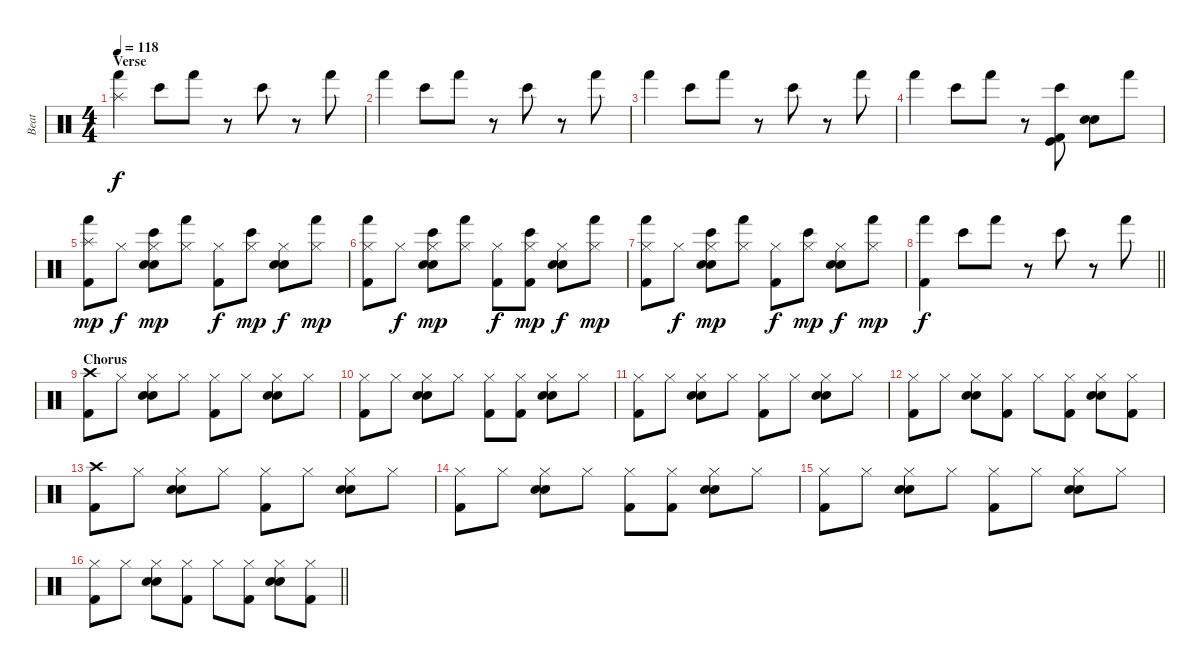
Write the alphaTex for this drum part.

\track ("Beat" "Beat") {instrument percussion}
\staff {score}
\articulation defaults
\ts (4 4)
\section ("" "Verse")
\tempo 118
\clef neutral
\ks c
("Splash (hit)" "Hand (hit)").4{dy f} "Bongo High (hit)".8 "Hand (hit)".8 r.8 "Bongo High (hit)".8 r.8 "Hand (hit)".8 |
"Hand (hit)".4 "Bongo High (hit)".8 "Hand (hit)".8 r.8 "Bongo High (hit)".8 r.8 "Hand (hit)".8 |
"Hand (hit)".4 "Bongo High (hit)".8 "Hand (hit)".8 r.8 "Bongo High (hit)".8 r.8 "Hand (hit)".8 |
"Hand (hit)".4 "Bongo High (hit)".8 "Hand (hit)".8 r.8 ("Bongo High (hit)" "Kick (hit)" "Kick (hit) 2").8 ("Electric Snare (hit)" "Hand Clap (hit)").8 "Hand (hit)".8 |
("Splash (hit)" "Hand (hit)" "Kick (hit) 2").8{dy mp} "Hi-Hat (closed)".8{dy f} ("Hi-Hat (closed)" "Bongo High (hit)" "Electric Snare (hit)" "Hand Clap (hit)").8{dy mp} ("Hi-Hat (closed)" "Hand (hit)").8 ("Hi-Hat (closed)" "Kick (hit) 2").8{dy f} ("Hi-Hat (closed)" "Bongo High (hit)").8{dy mp} ("Hi-Hat (closed)" "Electric Snare (hit)" "Hand Clap (hit)").8{dy f} ("Hi-Hat (closed)" "Hand (hit)").8{dy mp} |
("Hi-Hat (closed)" "Hand (hit)" "Kick (hit) 2").8 "Hi-Hat (closed)".8{dy f} ("Hi-Hat (closed)" "Bongo High (hit)" "Electric Snare (hit)" "Hand Clap (hit)").8{dy mp} ("Hi-Hat (closed)" "Hand (hit)").8 ("Hi-Hat (closed)" "Kick (hit) 2").8{dy f} ("Hi-Hat (closed)" "Bongo High (hit)" "Kick (hit) 2").8{dy mp} ("Hi-Hat (closed)" "Electric Snare (hit)" "Hand Clap (hit)").8{dy f} ("Hi-Hat (closed)" "Hand (hit)").8{dy mp} |
("Hi-Hat (closed)" "Hand (hit)" "Kick (hit) 2").8 "Hi-Hat (closed)".8{dy f} ("Hi-Hat (closed)" "Bongo High (hit)" "Electric Snare (hit)" "Hand Clap (hit)").8{dy mp} ("Hi-Hat (closed)" "Hand (hit)").8 ("Hi-Hat (closed)" "Kick (hit) 2").8{dy f} ("Hi-Hat (closed)" "Bongo High (hit)").8{dy mp} ("Hi-Hat (closed)" "Electric Snare (hit)" "Hand Clap (hit)").8{dy f} ("Hi-Hat (closed)" "Hand (hit)").8{dy mp} |
\barLineRight lightlight
("Hand (hit)" "Kick (hit) 2").4{dy f} "Bongo High (hit)".8 "Hand (hit)".8 r.8 "Bongo High (hit)".8 r.8 "Hand (hit)".8 |
\section ("" "Chorus")
("Crash high (hit)" "Kick (hit) 2").8 "Hi-Hat (closed)".8 ("Hi-Hat (closed)" "Electric Snare (hit)" "Hand Clap (hit)").8 "Hi-Hat (closed)".8 ("Hi-Hat (closed)" "Kick (hit) 2").8 "Hi-Hat (closed)".8 ("Hi-Hat (closed)" "Electric Snare (hit)" "Hand Clap (hit)").8 "Hi-Hat (closed)".8 |
("Hi-Hat (closed)" "Kick (hit) 2").8 "Hi-Hat (closed)".8 ("Hi-Hat (closed)" "Electric Snare (hit)" "Hand Clap (hit)").8 "Hi-Hat (closed)".8 ("Hi-Hat (closed)" "Kick (hit) 2").8 ("Hi-Hat (closed)" "Kick (hit) 2").8 ("Hi-Hat (closed)" "Electric Snare (hit)" "Hand Clap (hit)").8 "Hi-Hat (closed)".8 |
("Hi-Hat (closed)" "Kick (hit) 2").8 "Hi-Hat (closed)".8 ("Hi-Hat (closed)" "Electric Snare (hit)" "Hand Clap (hit)").8 "Hi-Hat (closed)".8 ("Hi-Hat (closed)" "Kick (hit) 2").8 "Hi-Hat (closed)".8 ("Hi-Hat (closed)" "Electric Snare (hit)" "Hand Clap (hit)").8 "Hi-Hat (closed)".8 |
("Hi-Hat (closed)" "Kick (hit) 2").8 "Hi-Hat (closed)".8 ("Hi-Hat (closed)" "Electric Snare (hit)" "Hand Clap (hit)").8 ("Hi-Hat (closed)" "Kick (hit) 2").8 "Hi-Hat (closed)".8 ("Hi-Hat (closed)" "Kick (hit) 2").8 ("Hi-Hat (closed)" "Electric Snare (hit)" "Hand Clap (hit)").8 ("Hi-Hat (closed)" "Kick (hit) 2").8 |
("Crash high (hit)" "Kick (hit) 2").8 "Hi-Hat (closed)".8 ("Hi-Hat (closed)" "Electric Snare (hit)" "Hand Clap (hit)").8 "Hi-Hat (closed)".8 ("Hi-Hat (closed)" "Kick (hit) 2").8 "Hi-Hat (closed)".8 ("Hi-Hat (closed)" "Electric Snare (hit)" "Hand Clap (hit)").8 "Hi-Hat (closed)".8 |
("Hi-Hat (closed)" "Kick (hit) 2").8 "Hi-Hat (closed)".8 ("Hi-Hat (closed)" "Electric Snare (hit)" "Hand Clap (hit)").8 "Hi-Hat (closed)".8 ("Hi-Hat (closed)" "Kick (hit) 2").8 ("Hi-Hat (closed)" "Kick (hit) 2").8 ("Hi-Hat (closed)" "Electric Snare (hit)" "Hand Clap (hit)").8 "Hi-Hat (closed)".8 |
("Hi-Hat (closed)" "Kick (hit) 2").8 "Hi-Hat (closed)".8 ("Hi-Hat (closed)" "Electric Snare (hit)" "Hand Clap (hit)").8 "Hi-Hat (closed)".8 ("Hi-Hat (closed)" "Kick (hit) 2").8 "Hi-Hat (closed)".8 ("Hi-Hat (closed)" "Electric Snare (hit)" "Hand Clap (hit)").8 "Hi-Hat (closed)".8 |
\barLineRight lightlight
("Hi-Hat (closed)" "Kick (hit) 2").8 "Hi-Hat (closed)".8 ("Hi-Hat (closed)" "Electric Snare (hit)" "Hand Clap (hit)").8 ("Hi-Hat (closed)" "Kick (hit) 2").8 "Hi-Hat (closed)".8 ("Hi-Hat (closed)" "Kick (hit) 2").8 ("Hi-Hat (closed)" "Electric Snare (hit)" "Hand Clap (hit)").8 ("Hi-Hat (closed)" "Kick (hit) 2").8
